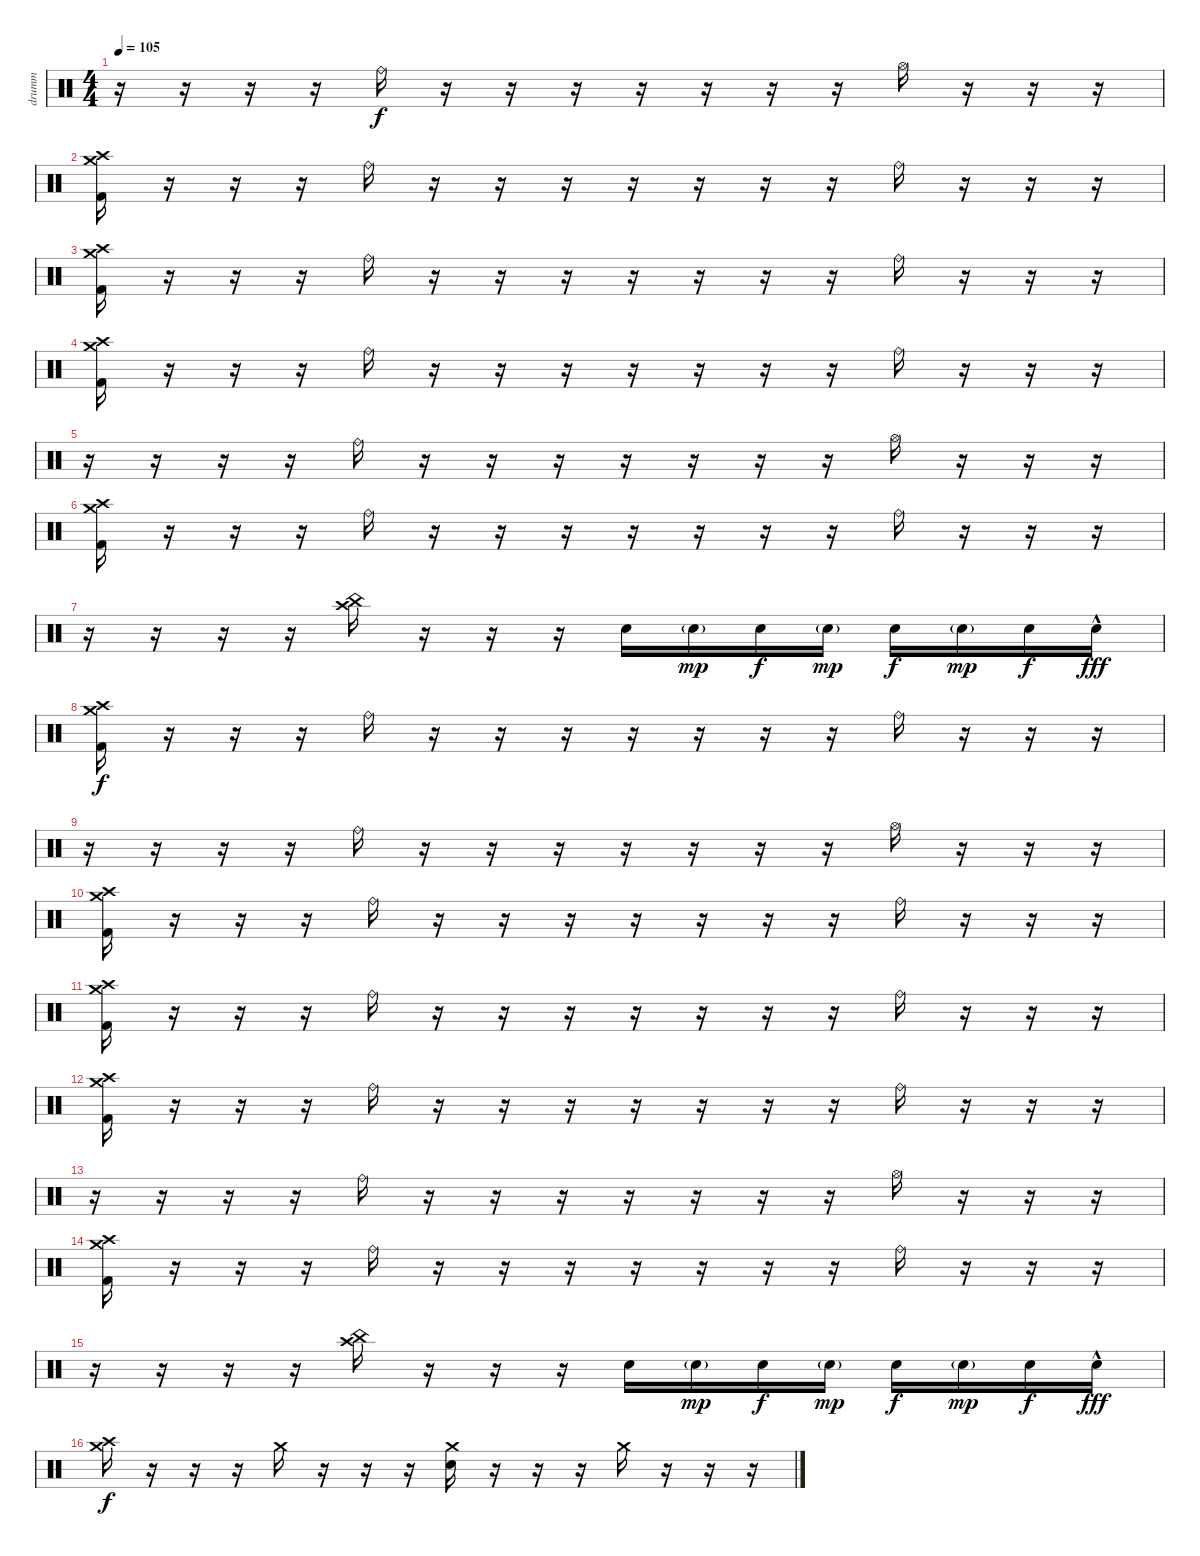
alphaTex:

\track ("drumm" "drumm") {instrument percussion}
\staff
\articulation defaults
\ts (4 4)
\tempo 105
\clef neutral
\ks c
r.16{dy f} r.16 r.16 r.16 "Ride (bell)".16 r.16 r.16 r.16 r.16 r.16 r.16 r.16 "Hi-Hat (open)".16 r.16 r.16 r.16 |
("Kick (hit) 2" "Crash medium (hit)" "Crash high (hit)").16 r.16 r.16 r.16 "Ride (bell)".16 r.16 r.16 r.16 r.16 r.16 r.16 r.16 "Ride (bell)".16 r.16 r.16 r.16 |
("Kick (hit) 2" "Crash medium (hit)" "Crash high (hit)").16 r.16 r.16 r.16 "Ride (bell)".16 r.16 r.16 r.16 r.16 r.16 r.16 r.16 "Ride (bell)".16 r.16 r.16 r.16 |
("Kick (hit) 2" "Crash medium (hit)" "Crash high (hit)").16 r.16 r.16 r.16 "Ride (bell)".16 r.16 r.16 r.16 r.16 r.16 r.16 r.16 "Ride (bell)".16 r.16 r.16 r.16 |
r.16 r.16 r.16 r.16 "Ride (bell)".16 r.16 r.16 r.16 r.16 r.16 r.16 r.16 "Hi-Hat (open)".16 r.16 r.16 r.16 |
("Kick (hit) 2" "Crash medium (hit)" "Crash high (hit)").16 r.16 r.16 r.16 "Ride (bell)".16 r.16 r.16 r.16 r.16 r.16 r.16 r.16 "Ride (bell)".16 r.16 r.16 r.16 |
r.16 r.16 r.16 r.16 ("China (hit)" "Crash high (hit)").16 r.16 r.16 r.16 "Electric Snare (hit)".16 "Electric Snare (hit)"{g}.16{dy mp} "Electric Snare (hit)".16{dy f} "Electric Snare (hit)"{g}.16{dy mp} "Electric Snare (hit)".16{dy f} "Electric Snare (hit)"{g}.16{dy mp} "Electric Snare (hit)".16{dy f} "Electric Snare (hit)"{hac}.16{dy fff} |
("Kick (hit) 2" "Crash medium (hit)" "Crash high (hit)").16{dy f} r.16 r.16 r.16 "Ride (bell)".16 r.16 r.16 r.16 r.16 r.16 r.16 r.16 "Ride (bell)".16 r.16 r.16 r.16 |
r.16 r.16 r.16 r.16 "Ride (bell)".16 r.16 r.16 r.16 r.16 r.16 r.16 r.16 "Hi-Hat (open)".16 r.16 r.16 r.16 |
("Kick (hit) 2" "Crash medium (hit)" "Crash high (hit)").16 r.16 r.16 r.16 "Ride (bell)".16 r.16 r.16 r.16 r.16 r.16 r.16 r.16 "Ride (bell)".16 r.16 r.16 r.16 |
("Kick (hit) 2" "Crash medium (hit)" "Crash high (hit)").16 r.16 r.16 r.16 "Ride (bell)".16 r.16 r.16 r.16 r.16 r.16 r.16 r.16 "Ride (bell)".16 r.16 r.16 r.16 |
("Kick (hit) 2" "Crash medium (hit)" "Crash high (hit)").16 r.16 r.16 r.16 "Ride (bell)".16 r.16 r.16 r.16 r.16 r.16 r.16 r.16 "Ride (bell)".16 r.16 r.16 r.16 |
r.16 r.16 r.16 r.16 "Ride (bell)".16 r.16 r.16 r.16 r.16 r.16 r.16 r.16 "Hi-Hat (open)".16 r.16 r.16 r.16 |
("Kick (hit) 2" "Crash medium (hit)" "Crash high (hit)").16 r.16 r.16 r.16 "Ride (bell)".16 r.16 r.16 r.16 r.16 r.16 r.16 r.16 "Ride (bell)".16 r.16 r.16 r.16 |
r.16 r.16 r.16 r.16 ("China (hit)" "Crash high (hit)").16 r.16 r.16 r.16 "Electric Snare (hit)".16 "Electric Snare (hit)"{g}.16{dy mp} "Electric Snare (hit)".16{dy f} "Electric Snare (hit)"{g}.16{dy mp} "Electric Snare (hit)".16{dy f} "Electric Snare (hit)"{g}.16{dy mp} "Electric Snare (hit)".16{dy f} "Electric Snare (hit)"{hac}.16{dy fff} |
("Crash medium (hit)" "Crash high (hit)").16{dy f} r.16 r.16 r.16 "Crash medium (hit)".16 r.16 r.16 r.16 ("Electric Snare (hit)" "Crash medium (hit)").16 r.16 r.16 r.16 "Crash medium (hit)".16 r.16 r.16 r.16
